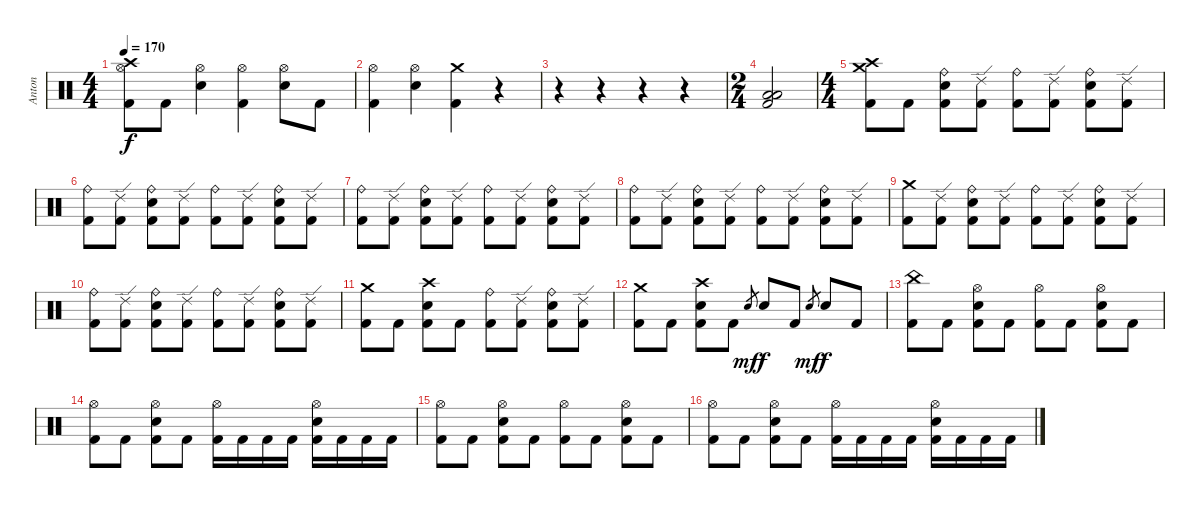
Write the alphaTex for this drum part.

\track ("Anton" "Anton") {instrument percussion}
\staff
\articulation defaults
\ts (4 4)
\tempo 170
\clef neutral
\ks c
("Crash high (hit)" "Hi-Hat (open)" "Kick (hit) 2").8{dy f} "Kick (hit) 2".8 ("Hi-Hat (open)" "Electric Snare (hit)").4 ("Hi-Hat (open)" "Kick (hit) 2").4 ("Hi-Hat (open)" "Electric Snare (hit)").8 "Kick (hit) 2".8 |
("Hi-Hat (open)" "Kick (hit) 2").4 ("Hi-Hat (open)" "Electric Snare (hit)").4 ("Crash medium (hit)" "Kick (hit) 2").4 r.4 |
r.4 r.4 r.4 r.4 |
\ts (2 4)
("Low Tom (hit)" "Low Floor Tom (hit)" "Kick (hit) 2").2 |
\ts (4 4)
("Crash high (hit)" "Crash medium (hit)" "Kick (hit) 2").8 "Kick (hit) 2".8 ("Ride (bell)" "Electric Snare (hit)" "Kick (hit) 2").8 ("Ride (edge) 2" "Kick (hit) 2").8 ("Ride (bell)" "Kick (hit) 2").8 ("Ride (edge) 2" "Kick (hit) 2").8 ("Ride (bell)" "Electric Snare (hit)" "Kick (hit) 2").8 ("Ride (edge) 2" "Kick (hit) 2").8 |
("Ride (bell)" "Kick (hit) 2").8 ("Ride (edge) 2" "Kick (hit) 2").8 ("Ride (bell)" "Electric Snare (hit)" "Kick (hit) 2").8 ("Ride (edge) 2" "Kick (hit) 2").8 ("Ride (bell)" "Kick (hit) 2").8 ("Ride (edge) 2" "Kick (hit) 2").8 ("Ride (bell)" "Electric Snare (hit)" "Kick (hit) 2").8 ("Ride (edge) 2" "Kick (hit) 2").8 |
("Ride (bell)" "Kick (hit) 2").8 ("Ride (edge) 2" "Kick (hit) 2").8 ("Ride (bell)" "Electric Snare (hit)" "Kick (hit) 2").8 ("Ride (edge) 2" "Kick (hit) 2").8 ("Ride (bell)" "Kick (hit) 2").8 ("Ride (edge) 2" "Kick (hit) 2").8 ("Ride (bell)" "Electric Snare (hit)" "Kick (hit) 2").8 ("Ride (edge) 2" "Kick (hit) 2").8 |
("Ride (bell)" "Kick (hit) 2").8 ("Ride (edge) 2" "Kick (hit) 2").8 ("Ride (bell)" "Electric Snare (hit)" "Kick (hit) 2").8 ("Ride (edge) 2" "Kick (hit) 2").8 ("Ride (bell)" "Kick (hit) 2").8 ("Ride (edge) 2" "Kick (hit) 2").8 ("Ride (bell)" "Electric Snare (hit)" "Kick (hit) 2").8 ("Ride (edge) 2" "Kick (hit) 2").8 |
("Crash medium (hit)" "Kick (hit) 2").8 ("Ride (edge) 2" "Kick (hit) 2").8 ("Ride (bell)" "Electric Snare (hit)" "Kick (hit) 2").8 ("Ride (edge) 2" "Kick (hit) 2").8 ("Ride (bell)" "Kick (hit) 2").8 ("Ride (edge) 2" "Kick (hit) 2").8 ("Ride (bell)" "Electric Snare (hit)" "Kick (hit) 2").8 ("Ride (edge) 2" "Kick (hit) 2").8 |
("Ride (bell)" "Kick (hit) 2").8 ("Ride (edge) 2" "Kick (hit) 2").8 ("Ride (bell)" "Electric Snare (hit)" "Kick (hit) 2").8 ("Ride (edge) 2" "Kick (hit) 2").8 ("Ride (bell)" "Kick (hit) 2").8 ("Ride (edge) 2" "Kick (hit) 2").8 ("Ride (bell)" "Electric Snare (hit)" "Kick (hit) 2").8 ("Ride (edge) 2" "Kick (hit) 2").8 |
("Crash medium (hit)" "Kick (hit) 2").8 "Kick (hit) 2".8 ("Crash high (hit)" "Electric Snare (hit)" "Kick (hit) 2").8 "Kick (hit) 2".8 ("Ride (bell)" "Kick (hit) 2").8 ("Ride (edge) 2" "Kick (hit) 2").8 ("Ride (bell)" "Electric Snare (hit)" "Kick (hit) 2").8 ("Ride (edge) 2" "Kick (hit) 2").8 |
("Crash medium (hit)" "Kick (hit) 2").8 "Kick (hit) 2".8 ("Crash high (hit)" "Electric Snare (hit)" "Kick (hit) 2").8 "Kick (hit) 2".8 "Electric Snare (hit)".8{gr dy mf} "Electric Snare (hit)".8{dy f} "Kick (hit) 2".8 "Electric Snare (hit)".8{gr dy mf} "Electric Snare (hit)".8{dy f} "Kick (hit) 2".8 |
("China (hit)" "Kick (hit) 2").8 "Kick (hit) 2".8 ("Hi-Hat (open)" "Electric Snare (hit)" "Kick (hit) 2").8 "Kick (hit) 2".8 ("Hi-Hat (open)" "Kick (hit) 2").8 "Kick (hit) 2".8 ("Hi-Hat (open)" "Electric Snare (hit)" "Kick (hit) 2").8 "Kick (hit) 2".8 |
("Hi-Hat (open)" "Kick (hit) 2").8 "Kick (hit) 2".8 ("Hi-Hat (open)" "Electric Snare (hit)" "Kick (hit) 2").8 "Kick (hit) 2".8 ("Hi-Hat (open)" "Kick (hit) 2").16 "Kick (hit) 2".16 "Kick (hit) 2".16 "Kick (hit) 2".16 ("Hi-Hat (open)" "Electric Snare (hit)" "Kick (hit) 2").16 "Kick (hit) 2".16 "Kick (hit) 2".16 "Kick (hit) 2".16 |
("Hi-Hat (open)" "Kick (hit) 2").8 "Kick (hit) 2".8 ("Hi-Hat (open)" "Electric Snare (hit)" "Kick (hit) 2").8 "Kick (hit) 2".8 ("Hi-Hat (open)" "Kick (hit) 2").8 "Kick (hit) 2".8 ("Hi-Hat (open)" "Electric Snare (hit)" "Kick (hit) 2").8 "Kick (hit) 2".8 |
("Hi-Hat (open)" "Kick (hit) 2").8 "Kick (hit) 2".8 ("Hi-Hat (open)" "Electric Snare (hit)" "Kick (hit) 2").8 "Kick (hit) 2".8 ("Hi-Hat (open)" "Kick (hit) 2").16 "Kick (hit) 2".16 "Kick (hit) 2".16 "Kick (hit) 2".16 ("Hi-Hat (open)" "Electric Snare (hit)" "Kick (hit) 2").16 "Kick (hit) 2".16 "Kick (hit) 2".16 "Kick (hit) 2".16
